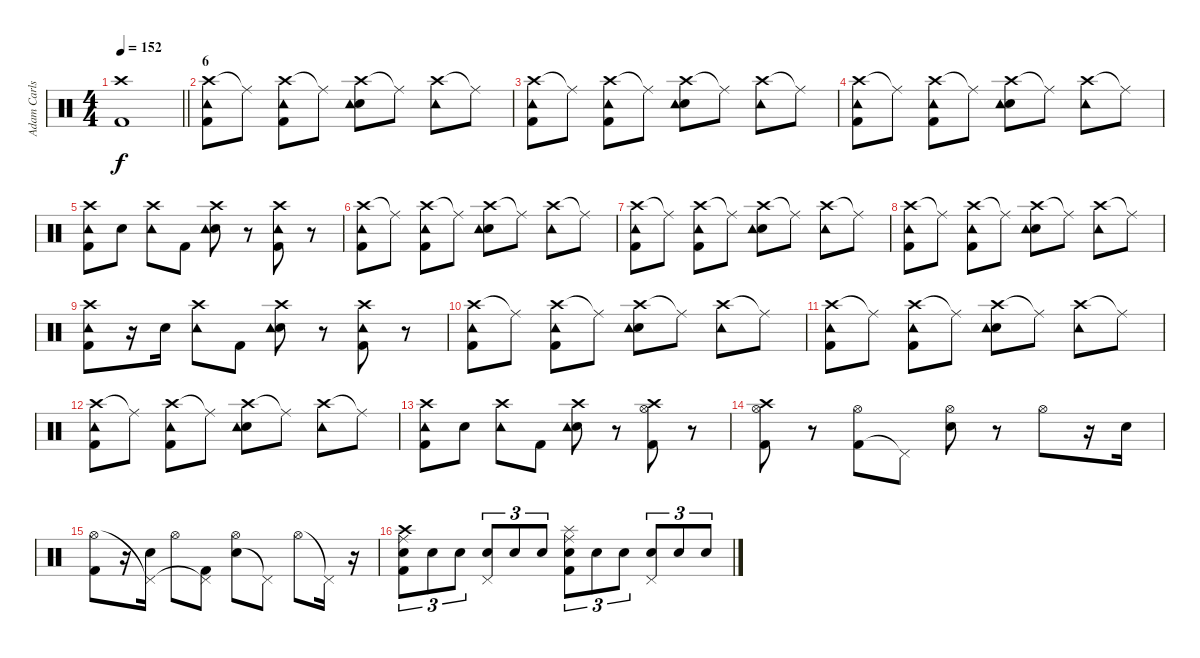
\track ("Adam Carlson" "Adam Carls") {instrument percussion}
\staff {score}
\articulation defaults
\ts (4 4)
\tempo 152
\clef neutral
\barLineRight lightlight
\ks c
("Crash high (hit)" "Kick (hit) 2").1{dy f} |
\section ("" "6")
("Crash high (hit)" "Tambourine (hit)" "Kick (hit) 2").8 "Ride (middle)"{t}.8 ("Crash high (hit)" "Tambourine (hit)" "Kick (hit) 2").8 "Ride (middle)"{t}.8 ("Crash high (hit)" "Snare (hit) 2" "Tambourine (hit)").8 "Ride (middle)"{t}.8 ("Crash high (hit)" "Tambourine (hit)").8 "Ride (middle)"{t}.8 |
("Crash high (hit)" "Tambourine (hit)" "Kick (hit) 2").8 "Ride (middle)"{t}.8 ("Crash high (hit)" "Tambourine (hit)" "Kick (hit) 2").8 "Ride (middle)"{t}.8 ("Crash high (hit)" "Snare (hit) 2" "Tambourine (hit)").8 "Ride (middle)"{t}.8 ("Crash high (hit)" "Tambourine (hit)").8 "Ride (middle)"{t}.8 |
("Crash high (hit)" "Tambourine (hit)" "Kick (hit) 2").8 "Ride (middle)"{t}.8 ("Crash high (hit)" "Tambourine (hit)" "Kick (hit) 2").8 "Ride (middle)"{t}.8 ("Crash high (hit)" "Snare (hit) 2" "Tambourine (hit)").8 "Ride (middle)"{t}.8 ("Crash high (hit)" "Tambourine (hit)").8 "Ride (middle)"{t}.8 |
("Crash high (hit)" "Tambourine (hit)" "Kick (hit) 2").8 "Snare (hit) 2".8 ("Crash high (hit)" "Tambourine (hit)").8 "Kick (hit) 2".8 ("Crash high (hit)" "Snare (hit) 2" "Tambourine (hit)").8 r.8 ("Crash high (hit)" "Tambourine (hit)" "Kick (hit) 2").8 r.8 |
("Crash high (hit)" "Tambourine (hit)" "Kick (hit) 2").8 "Ride (middle)"{t}.8 ("Crash high (hit)" "Tambourine (hit)" "Kick (hit) 2").8 "Ride (middle)"{t}.8 ("Crash high (hit)" "Snare (hit) 2" "Tambourine (hit)").8 "Ride (middle)"{t}.8 ("Crash high (hit)" "Tambourine (hit)").8 "Ride (middle)"{t}.8 |
("Crash high (hit)" "Tambourine (hit)" "Kick (hit) 2").8 "Ride (middle)"{t}.8 ("Crash high (hit)" "Tambourine (hit)" "Kick (hit) 2").8 "Ride (middle)"{t}.8 ("Crash high (hit)" "Snare (hit) 2" "Tambourine (hit)").8 "Ride (middle)"{t}.8 ("Crash high (hit)" "Tambourine (hit)").8 "Ride (middle)"{t}.8 |
("Crash high (hit)" "Tambourine (hit)" "Kick (hit) 2").8 "Ride (middle)"{t}.8 ("Crash high (hit)" "Tambourine (hit)" "Kick (hit) 2").8 "Ride (middle)"{t}.8 ("Crash high (hit)" "Snare (hit) 2" "Tambourine (hit)").8 "Ride (middle)"{t}.8 ("Crash high (hit)" "Tambourine (hit)").8 "Ride (middle)"{t}.8 |
("Crash high (hit)" "Tambourine (hit)" "Kick (hit) 2").8 r.16 "Snare (hit) 2".16 ("Crash high (hit)" "Tambourine (hit)").8 "Kick (hit) 2".8 ("Crash high (hit)" "Snare (hit) 2" "Tambourine (hit)").8 r.8 ("Crash high (hit)" "Tambourine (hit)" "Kick (hit) 2").8 r.8 |
("Crash high (hit)" "Tambourine (hit)" "Kick (hit) 2").8 "Ride (middle)"{t}.8 ("Crash high (hit)" "Tambourine (hit)" "Kick (hit) 2").8 "Ride (middle)"{t}.8 ("Crash high (hit)" "Snare (hit) 2" "Tambourine (hit)").8 "Ride (middle)"{t}.8 ("Crash high (hit)" "Tambourine (hit)").8 "Ride (middle)"{t}.8 |
("Crash high (hit)" "Tambourine (hit)" "Kick (hit) 2").8 "Ride (middle)"{t}.8 ("Crash high (hit)" "Tambourine (hit)" "Kick (hit) 2").8 "Ride (middle)"{t}.8 ("Crash high (hit)" "Snare (hit) 2" "Tambourine (hit)").8 "Ride (middle)"{t}.8 ("Crash high (hit)" "Tambourine (hit)").8 "Ride (middle)"{t}.8 |
("Crash high (hit)" "Tambourine (hit)" "Kick (hit) 2").8 "Ride (middle)"{t}.8 ("Crash high (hit)" "Tambourine (hit)" "Kick (hit) 2").8 "Ride (middle)"{t}.8 ("Crash high (hit)" "Snare (hit) 2" "Tambourine (hit)").8 "Ride (middle)"{t}.8 ("Crash high (hit)" "Tambourine (hit)").8 "Ride (middle)"{t}.8 |
("Crash high (hit)" "Tambourine (hit)" "Kick (hit) 2").8 "Snare (hit) 2".8 ("Crash high (hit)" "Tambourine (hit)").8 "Kick (hit) 2".8 ("Crash high (hit)" "Snare (hit) 2" "Tambourine (hit)").8 r.8 ("Crash high (hit)" "Hi-Hat (open)" "Kick (hit) 2").8 r.8 |
("Crash high (hit)" "Kick (hit) 2" "Hi-Hat (open)").8 r.8 ("Kick (hit) 2" "Hi-Hat (open)").8 "Pedal Hi-Hat (hit)"{t}.8 ("Snare (hit) 2" "Hi-Hat (open)").8 r.8 "Hi-Hat (open)".8 r.16 "Snare (hit) 2".16 |
("Kick (hit) 2" "Hi-Hat (open)").8 r.16 ("Snare (hit) 2" "Pedal Hi-Hat (hit)"{t}).16 "Hi-Hat (open)".8 ("Kick (hit) 2" "Pedal Hi-Hat (hit)"{t}).8 ("Snare (hit) 2" "Hi-Hat (open)").8 "Pedal Hi-Hat (hit)"{t}.8 "Hi-Hat (open)".8 "Pedal Hi-Hat (hit)"{t}.16 r.16 |
("Crash high (hit)" "Ride (middle)" "Snare (hit) 2" "Kick (hit) 2").8{tu (3 2)} "Snare (hit) 2".8{tu (3 2)} "Snare (hit) 2".8{tu (3 2)} ("Pedal Hi-Hat (hit)" "Snare (hit) 2").8{tu (3 2)} "Snare (hit) 2".8{tu (3 2)} "Snare (hit) 2".8{tu (3 2)} ("Ride (middle)" "Snare (hit) 2" "Splash (hit)" "Kick (hit) 2").8{tu (3 2)} "Snare (hit) 2".8{tu (3 2)} "Snare (hit) 2".8{tu (3 2)} ("Pedal Hi-Hat (hit)" "Snare (hit) 2").8{tu (3 2)} "Snare (hit) 2".8{tu (3 2)} "Snare (hit) 2".8{tu (3 2)}
